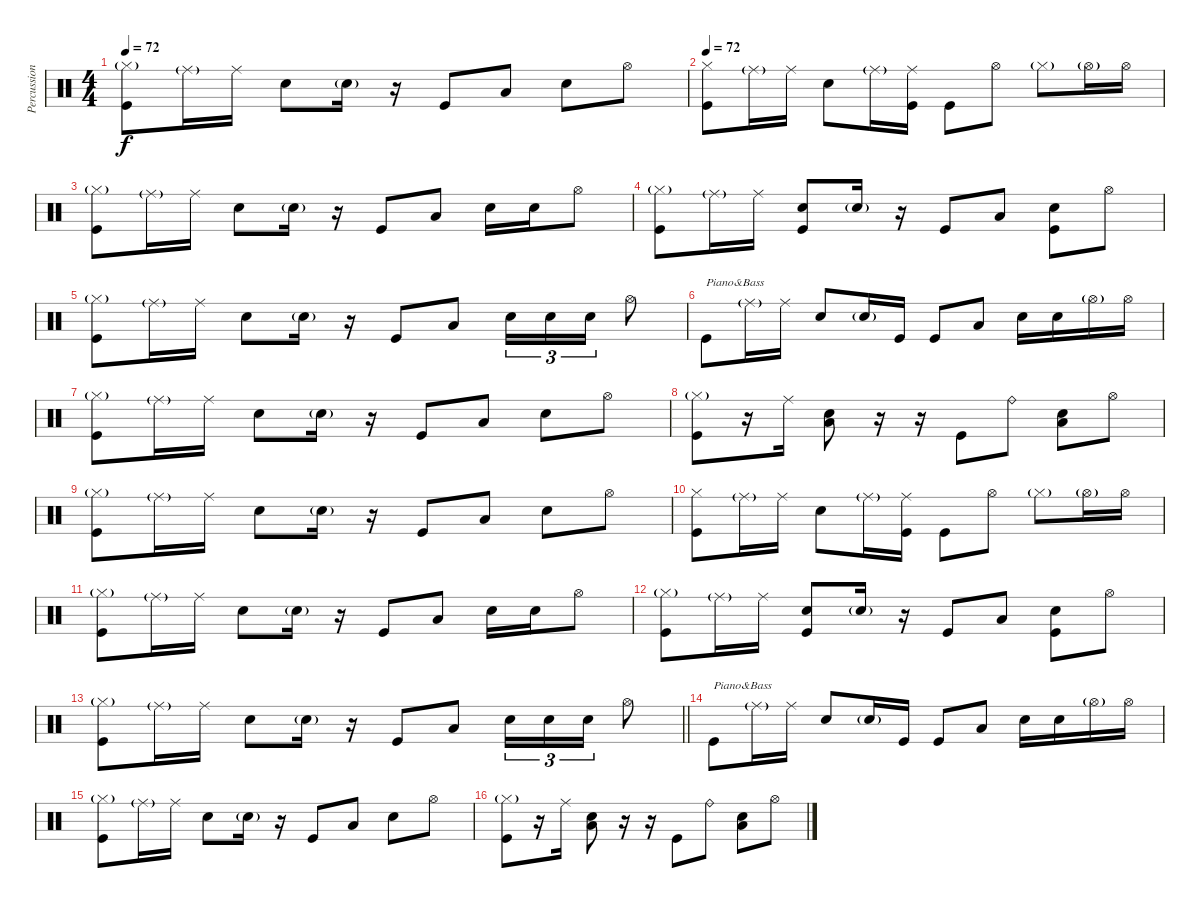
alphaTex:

\track ("Percussion" "Percussion") {instrument percussion}
\staff {score}
\articulation defaults
\ts (4 4)
\tempo 72
\clef neutral
\ks c
("Hi-Hat (closed)"{g} "Kick (hit)").8{dy f} "Ride (middle)"{g}.16 "Ride (middle)".16 "Snare (hit) 2".8 "Snare (hit) 2"{g}.16 r.16 "Kick (hit)".8 "Low Floor Tom (hit)".8 "Snare (hit) 2".8 "Hi-Hat (open)".8 |
\tempo 72
("Hi-Hat (closed)" "Kick (hit)").8 "Ride (middle)"{g}.16 "Ride (middle)".16 "Snare (hit) 2".8 "Ride (middle)"{g}.16 ("Ride (middle)" "Kick (hit)").16 "Kick (hit)".8 "Hi-Hat (open)".8 "Hi-Hat (closed)"{g}.8 "Hi-Hat (open)"{g}.16 "Hi-Hat (open)".16 |
("Hi-Hat (closed)"{g} "Kick (hit)").8 "Ride (middle)"{g}.16 "Ride (middle)".16 "Snare (hit) 2".8 "Snare (hit) 2"{g}.16 r.16 "Kick (hit)".8 "Low Floor Tom (hit)".8 "Snare (hit) 2".16 "Snare (hit) 2".16 "Hi-Hat (open)".8 |
("Hi-Hat (closed)"{g} "Kick (hit)").8 "Ride (middle)"{g}.16 "Ride (middle)".16 ("Snare (hit) 2" "Kick (hit)").8 "Snare (hit) 2"{g}.16 r.16 "Kick (hit)".8 "Low Floor Tom (hit)".8 ("Snare (hit) 2" "Kick (hit)").8 "Hi-Hat (open)".8 |
("Hi-Hat (closed)"{g} "Kick (hit)").8 "Ride (middle)"{g}.16 "Ride (middle)".16 "Snare (hit) 2".8 "Snare (hit) 2"{g}.16 r.16 "Kick (hit)".8 "Low Floor Tom (hit)".8 "Snare (hit) 2".16{tu (3 2)} "Snare (hit) 2".16{tu (3 2)} "Snare (hit) 2".16{tu (3 2)} "Hi-Hat (open)".8 |
"Kick (hit)".8{txt "Piano&Bass"} "Ride (middle)"{g}.16 "Ride (middle)".16 "Snare (hit) 2".8 "Snare (hit) 2"{g}.16 "Kick (hit)".16 "Kick (hit)".8 "Low Floor Tom (hit)".8 "Snare (hit) 2".16 "Snare (hit) 2".16 "Hi-Hat (open)"{g}.16 "Hi-Hat (open)".16 |
("Hi-Hat (closed)"{g} "Kick (hit)").8 "Ride (middle)"{g}.16 "Ride (middle)".16 "Snare (hit) 2".8 "Snare (hit) 2"{g}.16 r.16 "Kick (hit)".8 "Low Floor Tom (hit)".8 "Snare (hit) 2".8 "Hi-Hat (open)".8 |
("Hi-Hat (closed)"{g} "Kick (hit)").8 r.16 "Ride (middle)".16 ("Snare (hit) 2" "Low Floor Tom (hit)").8 r.16 r.16 "Kick (hit)".8 "Ride (bell)".8 ("Snare (hit) 2" "Low Floor Tom (hit)").8 "Hi-Hat (open)".8 |
("Hi-Hat (closed)"{g} "Kick (hit)").8 "Ride (middle)"{g}.16 "Ride (middle)".16 "Snare (hit) 2".8 "Snare (hit) 2"{g}.16 r.16 "Kick (hit)".8 "Low Floor Tom (hit)".8 "Snare (hit) 2".8 "Hi-Hat (open)".8 |
("Hi-Hat (closed)" "Kick (hit)").8 "Ride (middle)"{g}.16 "Ride (middle)".16 "Snare (hit) 2".8 "Ride (middle)"{g}.16 ("Ride (middle)" "Kick (hit)").16 "Kick (hit)".8 "Hi-Hat (open)".8 "Hi-Hat (closed)"{g}.8 "Hi-Hat (open)"{g}.16 "Hi-Hat (open)".16 |
("Hi-Hat (closed)"{g} "Kick (hit)").8 "Ride (middle)"{g}.16 "Ride (middle)".16 "Snare (hit) 2".8 "Snare (hit) 2"{g}.16 r.16 "Kick (hit)".8 "Low Floor Tom (hit)".8 "Snare (hit) 2".16 "Snare (hit) 2".16 "Hi-Hat (open)".8 |
("Hi-Hat (closed)"{g} "Kick (hit)").8 "Ride (middle)"{g}.16 "Ride (middle)".16 ("Snare (hit) 2" "Kick (hit)").8 "Snare (hit) 2"{g}.16 r.16 "Kick (hit)".8 "Low Floor Tom (hit)".8 ("Snare (hit) 2" "Kick (hit)").8 "Hi-Hat (open)".8 |
\barLineRight lightlight
("Hi-Hat (closed)"{g} "Kick (hit)").8 "Ride (middle)"{g}.16 "Ride (middle)".16 "Snare (hit) 2".8 "Snare (hit) 2"{g}.16 r.16 "Kick (hit)".8 "Low Floor Tom (hit)".8 "Snare (hit) 2".16{tu (3 2)} "Snare (hit) 2".16{tu (3 2)} "Snare (hit) 2".16{tu (3 2)} "Hi-Hat (open)".8 |
"Kick (hit)".8{txt "Piano&Bass"} "Ride (middle)"{g}.16 "Ride (middle)".16 "Snare (hit) 2".8 "Snare (hit) 2"{g}.16 "Kick (hit)".16 "Kick (hit)".8 "Low Floor Tom (hit)".8 "Snare (hit) 2".16 "Snare (hit) 2".16 "Hi-Hat (open)"{g}.16 "Hi-Hat (open)".16 |
("Hi-Hat (closed)"{g} "Kick (hit)").8 "Ride (middle)"{g}.16 "Ride (middle)".16 "Snare (hit) 2".8 "Snare (hit) 2"{g}.16 r.16 "Kick (hit)".8 "Low Floor Tom (hit)".8 "Snare (hit) 2".8 "Hi-Hat (open)".8 |
("Hi-Hat (closed)"{g} "Kick (hit)").8 r.16 "Ride (middle)".16 ("Snare (hit) 2" "Low Floor Tom (hit)").8 r.16 r.16 "Kick (hit)".8 "Ride (bell)".8 ("Snare (hit) 2" "Low Floor Tom (hit)").8 "Hi-Hat (open)".8
